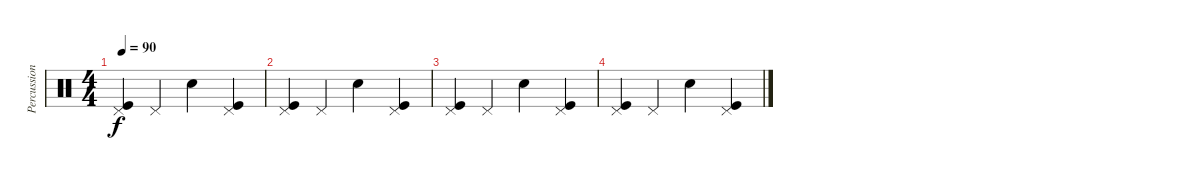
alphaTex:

\track ("Percussion" "Percussion") {instrument percussion}
\staff {score}
\articulation defaults
\ts (4 4)
\tempo 90
\clef neutral
\ks c
("Kick (hit)" "Pedal Hi-Hat (hit)").4{dy f} "Pedal Hi-Hat (hit)".4 "Snare (hit) 2".4 ("Pedal Hi-Hat (hit)" "Kick (hit)").4 |
("Kick (hit)" "Pedal Hi-Hat (hit)").4 "Pedal Hi-Hat (hit)".4 "Snare (hit) 2".4 ("Pedal Hi-Hat (hit)" "Kick (hit)").4 |
("Kick (hit)" "Pedal Hi-Hat (hit)").4 "Pedal Hi-Hat (hit)".4 "Snare (hit) 2".4 ("Pedal Hi-Hat (hit)" "Kick (hit)").4 |
("Kick (hit)" "Pedal Hi-Hat (hit)").4 "Pedal Hi-Hat (hit)".4 "Snare (hit) 2".4 ("Pedal Hi-Hat (hit)" "Kick (hit)").4
